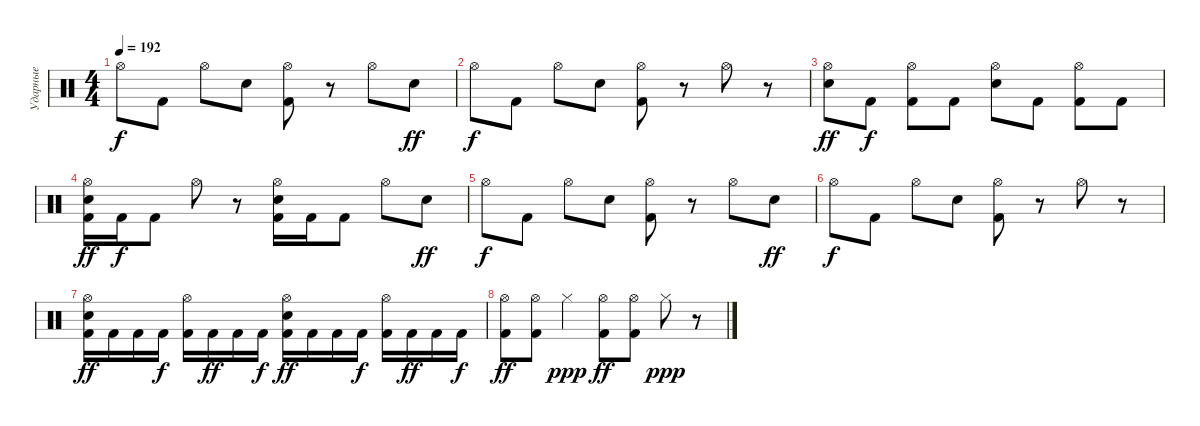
\track ("Ударные" "Ударные") {instrument percussion}
\staff {score}
\articulation defaults
\ts (4 4)
\tempo 192
\clef neutral
\ks c "Hi-Hat (open)".8{dy f} "Kick (hit) 2".8 "Hi-Hat (open)".8 "Electric Snare (hit)".8
("Hi-Hat (open)" "Kick (hit) 2").8 r.8 "Hi-Hat (open)".8 "Electric Snare (hit)".8{dy ff} |
"Hi-Hat (open)".8{dy f} "Kick (hit) 2".8 "Hi-Hat (open)".8 "Electric Snare (hit)".8 ("Hi-Hat (open)" "Kick (hit) 2").8 r.8 "Hi-Hat (open)".8 r.8 |
("Hi-Hat (open)" "Electric Snare (hit)").8{dy ff} "Kick (hit) 2".8{dy f} ("Hi-Hat (open)" "Kick (hit) 2").8 "Kick (hit) 2".8 ("Hi-Hat (open)" "Electric Snare (hit)").8 "Kick (hit) 2".8 ("Hi-Hat (open)" "Kick (hit) 2").8 "Kick (hit) 2".8 |
("Hi-Hat (open)" "Electric Snare (hit)" "Kick (hit) 2").16{dy ff} "Kick (hit) 2".16{dy f} "Kick (hit) 2".8 "Hi-Hat (open)".8 r.8 ("Hi-Hat (open)" "Electric Snare (hit)" "Kick (hit) 2").16 "Kick (hit) 2".16 "Kick (hit) 2".8 "Hi-Hat (open)".8 "Electric Snare (hit)".8{dy ff} |
"Hi-Hat (open)".8{dy f} "Kick (hit) 2".8 "Hi-Hat (open)".8 "Electric Snare (hit)".8 ("Hi-Hat (open)" "Kick (hit) 2").8 r.8 "Hi-Hat (open)".8 "Electric Snare (hit)".8{dy ff} |
"Hi-Hat (open)".8{dy f} "Kick (hit) 2".8 "Hi-Hat (open)".8 "Electric Snare (hit)".8 ("Hi-Hat (open)" "Kick (hit) 2").8 r.8 "Hi-Hat (open)".8 r.8 |
("Hi-Hat (open)" "Electric Snare (hit)" "Kick (hit) 2").16{dy ff} "Kick (hit) 2".16 "Kick (hit) 2".16 "Kick (hit) 2".16{dy f} ("Hi-Hat (open)" "Kick (hit) 2").16 "Kick (hit) 2".16{dy ff} "Kick (hit) 2".16 "Kick (hit) 2".16{dy f} ("Hi-Hat (open)" "Electric Snare (hit)" "Kick (hit) 2").16{dy ff} "Kick (hit) 2".16 "Kick (hit) 2".16 "Kick (hit) 2".16{dy f} ("Hi-Hat (open)" "Kick (hit) 2").16 "Kick (hit) 2".16{dy ff} "Kick (hit) 2".16 "Kick (hit) 2".16{dy f} |
("Hi-Hat (open)" "Kick (hit) 2").8{dy ff} ("Hi-Hat (open)" "Kick (hit) 2").8 "Hi-Hat (closed)".4{dy ppp} ("Hi-Hat (open)" "Kick (hit) 2").8{dy ff} ("Hi-Hat (open)" "Kick (hit) 2").8 "Hi-Hat (closed)".8{dy ppp} r.8
